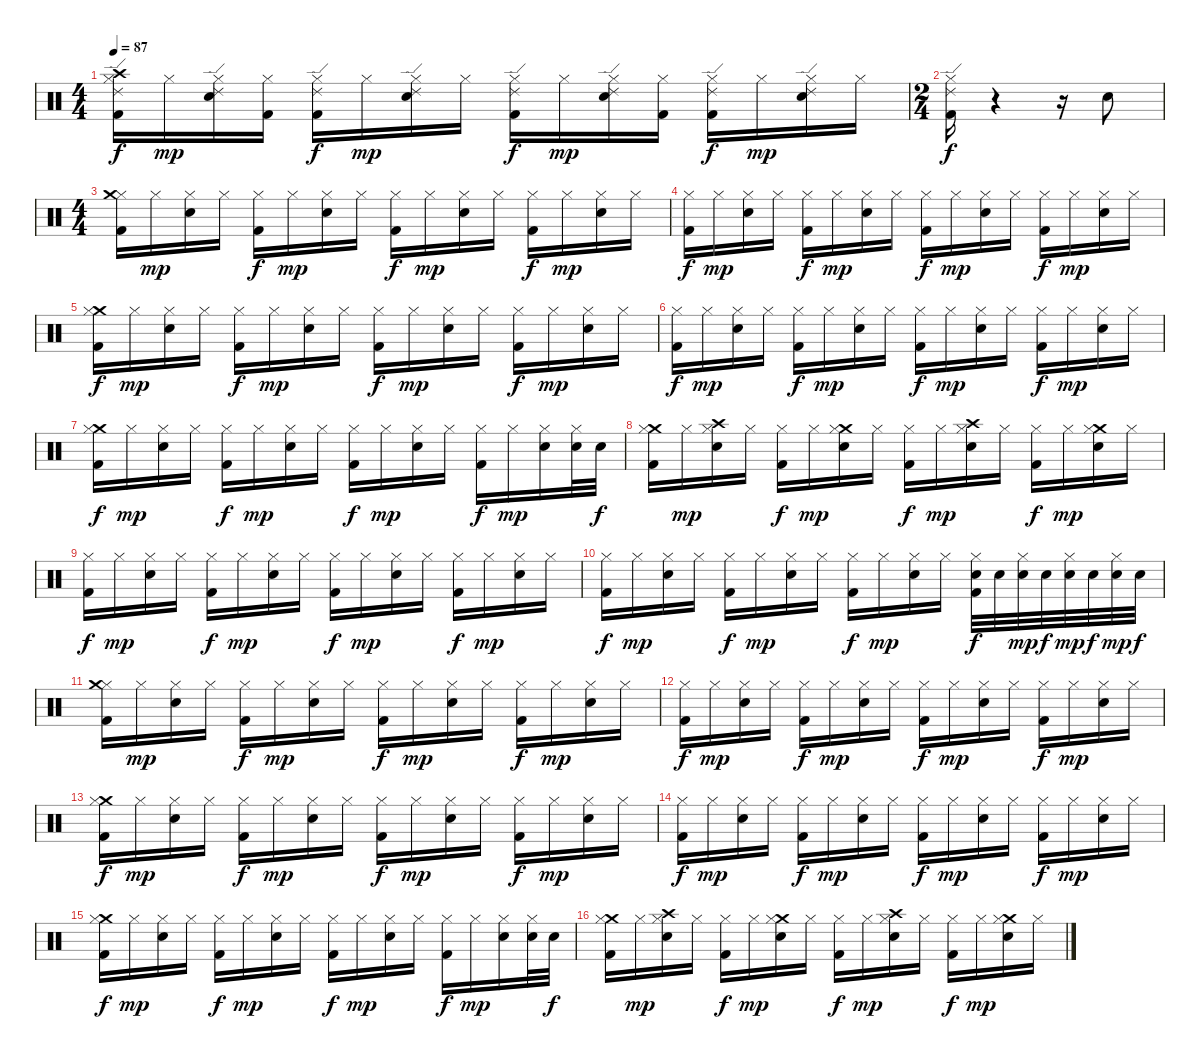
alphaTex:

\track "" {instrument percussion}
\staff {score}
\articulation defaults
\ts (4 4)
\tempo 87
\clef neutral
\ks c
("Hi-Hat (closed)" "Crash high (hit)" "Ride (edge) 2" "Kick (hit) 2").16{dy f} "Hi-Hat (closed)".16{dy mp} ("Hi-Hat (closed)" "Ride (edge) 2" "Electric Snare (hit)").16 ("Kick (hit) 2" "Hi-Hat (closed)").16 ("Hi-Hat (closed)" "Ride (edge) 2" "Kick (hit) 2").16{dy f} "Hi-Hat (closed)".16{dy mp} ("Hi-Hat (closed)" "Electric Snare (hit)" "Ride (edge) 2").16 "Hi-Hat (closed)".16 ("Hi-Hat (closed)" "Ride (edge) 2" "Kick (hit) 2").16{dy f} "Hi-Hat (closed)".16{dy mp} ("Hi-Hat (closed)" "Ride (edge) 2" "Electric Snare (hit)").16 ("Kick (hit) 2" "Hi-Hat (closed)").16 ("Hi-Hat (closed)" "Ride (edge) 2" "Kick (hit) 2").16{dy f} "Hi-Hat (closed)".16{dy mp} ("Hi-Hat (closed)" "Ride (edge) 2" "Electric Snare (hit)").16 "Hi-Hat (closed)".16 |
\ts (2 4)
("Ride (edge) 2" "Hi-Hat (closed)" "Kick (hit) 2").16{dy f} r.4 r.16 "Electric Snare (hit)".8 |
\ts (4 4)
("Hi-Hat (closed)" "Crash medium (hit)" "Kick (hit) 2").16 "Hi-Hat (closed)".16{dy mp} ("Hi-Hat (closed)" "Electric Snare (hit)").16 "Hi-Hat (closed)".16 ("Hi-Hat (closed)" "Kick (hit) 2").16{dy f} "Hi-Hat (closed)".16{dy mp} ("Hi-Hat (closed)" "Electric Snare (hit)").16 "Hi-Hat (closed)".16 ("Hi-Hat (closed)" "Kick (hit) 2").16{dy f} "Hi-Hat (closed)".16{dy mp} ("Hi-Hat (closed)" "Electric Snare (hit)").16 "Hi-Hat (closed)".16 ("Hi-Hat (closed)" "Kick (hit) 2").16{dy f} "Hi-Hat (closed)".16{dy mp} ("Hi-Hat (closed)" "Electric Snare (hit)").16 "Hi-Hat (closed)".16 |
("Hi-Hat (closed)" "Kick (hit) 2").16{dy f} "Hi-Hat (closed)".16{dy mp} ("Hi-Hat (closed)" "Electric Snare (hit)").16 "Hi-Hat (closed)".16 ("Hi-Hat (closed)" "Kick (hit) 2").16{dy f} "Hi-Hat (closed)".16{dy mp} ("Hi-Hat (closed)" "Electric Snare (hit)").16 "Hi-Hat (closed)".16 ("Hi-Hat (closed)" "Kick (hit) 2").16{dy f} "Hi-Hat (closed)".16{dy mp} ("Hi-Hat (closed)" "Electric Snare (hit)").16 "Hi-Hat (closed)".16 ("Hi-Hat (closed)" "Kick (hit) 2").16{dy f} "Hi-Hat (closed)".16{dy mp} ("Hi-Hat (closed)" "Electric Snare (hit)").16 "Hi-Hat (closed)".16 |
("Crash medium (hit)" "Hi-Hat (closed)" "Kick (hit) 2").16{dy f} "Hi-Hat (closed)".16{dy mp} ("Hi-Hat (closed)" "Electric Snare (hit)").16 "Hi-Hat (closed)".16 ("Hi-Hat (closed)" "Kick (hit) 2").16{dy f} "Hi-Hat (closed)".16{dy mp} ("Hi-Hat (closed)" "Electric Snare (hit)").16 "Hi-Hat (closed)".16 ("Hi-Hat (closed)" "Kick (hit) 2").16{dy f} "Hi-Hat (closed)".16{dy mp} ("Hi-Hat (closed)" "Electric Snare (hit)").16 "Hi-Hat (closed)".16 ("Hi-Hat (closed)" "Kick (hit) 2").16{dy f} "Hi-Hat (closed)".16{dy mp} ("Hi-Hat (closed)" "Electric Snare (hit)").16 "Hi-Hat (closed)".16 |
("Hi-Hat (closed)" "Kick (hit) 2").16{dy f} "Hi-Hat (closed)".16{dy mp} ("Hi-Hat (closed)" "Electric Snare (hit)").16 "Hi-Hat (closed)".16 ("Hi-Hat (closed)" "Kick (hit) 2").16{dy f} "Hi-Hat (closed)".16{dy mp} ("Hi-Hat (closed)" "Electric Snare (hit)").16 "Hi-Hat (closed)".16 ("Hi-Hat (closed)" "Kick (hit) 2").16{dy f} "Hi-Hat (closed)".16{dy mp} ("Hi-Hat (closed)" "Electric Snare (hit)").16 "Hi-Hat (closed)".16 ("Hi-Hat (closed)" "Kick (hit) 2").16{dy f} "Hi-Hat (closed)".16{dy mp} ("Hi-Hat (closed)" "Electric Snare (hit)").16 "Hi-Hat (closed)".16 |
("Crash medium (hit)" "Hi-Hat (closed)" "Kick (hit) 2").16{dy f} "Hi-Hat (closed)".16{dy mp} ("Hi-Hat (closed)" "Electric Snare (hit)").16 "Hi-Hat (closed)".16 ("Hi-Hat (closed)" "Kick (hit) 2").16{dy f} "Hi-Hat (closed)".16{dy mp} ("Hi-Hat (closed)" "Electric Snare (hit)").16 "Hi-Hat (closed)".16 ("Hi-Hat (closed)" "Kick (hit) 2").16{dy f} "Hi-Hat (closed)".16{dy mp} ("Hi-Hat (closed)" "Electric Snare (hit)").16 "Hi-Hat (closed)".16 ("Hi-Hat (closed)" "Kick (hit) 2").16{dy f} "Hi-Hat (closed)".16{dy mp} ("Electric Snare (hit)" "Hi-Hat (closed)").16 ("Electric Snare (hit)" "Hi-Hat (closed)").32 "Electric Snare (hit)".32{dy f} |
("Crash medium (hit)" "Hi-Hat (closed)" "Kick (hit) 2").16 "Hi-Hat (closed)".16{dy mp} ("Crash high (hit)" "Hi-Hat (closed)" "Electric Snare (hit)").16 "Hi-Hat (closed)".16 ("Hi-Hat (closed)" "Kick (hit) 2").16{dy f} "Hi-Hat (closed)".16{dy mp} ("Crash medium (hit)" "Hi-Hat (closed)" "Electric Snare (hit)").16 "Hi-Hat (closed)".16 ("Hi-Hat (closed)" "Kick (hit) 2").16{dy f} "Hi-Hat (closed)".16{dy mp} ("Crash high (hit)" "Hi-Hat (closed)" "Electric Snare (hit)").16 "Hi-Hat (closed)".16 ("Hi-Hat (closed)" "Kick (hit) 2").16{dy f} "Hi-Hat (closed)".16{dy mp} ("Crash medium (hit)" "Hi-Hat (closed)" "Electric Snare (hit)").16 "Hi-Hat (closed)".16 |
("Hi-Hat (closed)" "Kick (hit) 2").16{dy f} "Hi-Hat (closed)".16{dy mp} ("Hi-Hat (closed)" "Electric Snare (hit)").16 "Hi-Hat (closed)".16 ("Hi-Hat (closed)" "Kick (hit) 2").16{dy f} "Hi-Hat (closed)".16{dy mp} ("Hi-Hat (closed)" "Electric Snare (hit)").16 "Hi-Hat (closed)".16 ("Hi-Hat (closed)" "Kick (hit) 2").16{dy f} "Hi-Hat (closed)".16{dy mp} ("Hi-Hat (closed)" "Electric Snare (hit)").16 "Hi-Hat (closed)".16 ("Hi-Hat (closed)" "Kick (hit) 2").16{dy f} "Hi-Hat (closed)".16{dy mp} ("Hi-Hat (closed)" "Electric Snare (hit)").16 "Hi-Hat (closed)".16 |
("Hi-Hat (closed)" "Kick (hit) 2").16{dy f} "Hi-Hat (closed)".16{dy mp} ("Hi-Hat (closed)" "Electric Snare (hit)").16 "Hi-Hat (closed)".16 ("Hi-Hat (closed)" "Kick (hit) 2").16{dy f} "Hi-Hat (closed)".16{dy mp} ("Hi-Hat (closed)" "Electric Snare (hit)").16 "Hi-Hat (closed)".16 ("Hi-Hat (closed)" "Kick (hit) 2").16{dy f} "Hi-Hat (closed)".16{dy mp} ("Hi-Hat (closed)" "Electric Snare (hit)").16 "Hi-Hat (closed)".16 ("Electric Snare (hit)" "Hi-Hat (closed)" "Kick (hit) 2").32{dy f} "Electric Snare (hit)".32 ("Electric Snare (hit)" "Hi-Hat (closed)").32{dy mp} "Electric Snare (hit)".32{dy f} ("Hi-Hat (closed)" "Electric Snare (hit)").32{dy mp} "Electric Snare (hit)".32{dy f} ("Electric Snare (hit)" "Hi-Hat (closed)").32{dy mp} "Electric Snare (hit)".32{dy f} |
("Hi-Hat (closed)" "Crash medium (hit)" "Kick (hit) 2").16 "Hi-Hat (closed)".16{dy mp} ("Hi-Hat (closed)" "Electric Snare (hit)").16 "Hi-Hat (closed)".16 ("Hi-Hat (closed)" "Kick (hit) 2").16{dy f} "Hi-Hat (closed)".16{dy mp} ("Hi-Hat (closed)" "Electric Snare (hit)").16 "Hi-Hat (closed)".16 ("Hi-Hat (closed)" "Kick (hit) 2").16{dy f} "Hi-Hat (closed)".16{dy mp} ("Hi-Hat (closed)" "Electric Snare (hit)").16 "Hi-Hat (closed)".16 ("Hi-Hat (closed)" "Kick (hit) 2").16{dy f} "Hi-Hat (closed)".16{dy mp} ("Hi-Hat (closed)" "Electric Snare (hit)").16 "Hi-Hat (closed)".16 |
("Hi-Hat (closed)" "Kick (hit) 2").16{dy f} "Hi-Hat (closed)".16{dy mp} ("Hi-Hat (closed)" "Electric Snare (hit)").16 "Hi-Hat (closed)".16 ("Hi-Hat (closed)" "Kick (hit) 2").16{dy f} "Hi-Hat (closed)".16{dy mp} ("Hi-Hat (closed)" "Electric Snare (hit)").16 "Hi-Hat (closed)".16 ("Hi-Hat (closed)" "Kick (hit) 2").16{dy f} "Hi-Hat (closed)".16{dy mp} ("Hi-Hat (closed)" "Electric Snare (hit)").16 "Hi-Hat (closed)".16 ("Hi-Hat (closed)" "Kick (hit) 2").16{dy f} "Hi-Hat (closed)".16{dy mp} ("Hi-Hat (closed)" "Electric Snare (hit)").16 "Hi-Hat (closed)".16 |
("Crash medium (hit)" "Hi-Hat (closed)" "Kick (hit) 2").16{dy f} "Hi-Hat (closed)".16{dy mp} ("Hi-Hat (closed)" "Electric Snare (hit)").16 "Hi-Hat (closed)".16 ("Hi-Hat (closed)" "Kick (hit) 2").16{dy f} "Hi-Hat (closed)".16{dy mp} ("Hi-Hat (closed)" "Electric Snare (hit)").16 "Hi-Hat (closed)".16 ("Hi-Hat (closed)" "Kick (hit) 2").16{dy f} "Hi-Hat (closed)".16{dy mp} ("Hi-Hat (closed)" "Electric Snare (hit)").16 "Hi-Hat (closed)".16 ("Hi-Hat (closed)" "Kick (hit) 2").16{dy f} "Hi-Hat (closed)".16{dy mp} ("Hi-Hat (closed)" "Electric Snare (hit)").16 "Hi-Hat (closed)".16 |
("Hi-Hat (closed)" "Kick (hit) 2").16{dy f} "Hi-Hat (closed)".16{dy mp} ("Hi-Hat (closed)" "Electric Snare (hit)").16 "Hi-Hat (closed)".16 ("Hi-Hat (closed)" "Kick (hit) 2").16{dy f} "Hi-Hat (closed)".16{dy mp} ("Hi-Hat (closed)" "Electric Snare (hit)").16 "Hi-Hat (closed)".16 ("Hi-Hat (closed)" "Kick (hit) 2").16{dy f} "Hi-Hat (closed)".16{dy mp} ("Hi-Hat (closed)" "Electric Snare (hit)").16 "Hi-Hat (closed)".16 ("Hi-Hat (closed)" "Kick (hit) 2").16{dy f} "Hi-Hat (closed)".16{dy mp} ("Hi-Hat (closed)" "Electric Snare (hit)").16 "Hi-Hat (closed)".16 |
("Crash medium (hit)" "Hi-Hat (closed)" "Kick (hit) 2").16{dy f} "Hi-Hat (closed)".16{dy mp} ("Hi-Hat (closed)" "Electric Snare (hit)").16 "Hi-Hat (closed)".16 ("Hi-Hat (closed)" "Kick (hit) 2").16{dy f} "Hi-Hat (closed)".16{dy mp} ("Hi-Hat (closed)" "Electric Snare (hit)").16 "Hi-Hat (closed)".16 ("Hi-Hat (closed)" "Kick (hit) 2").16{dy f} "Hi-Hat (closed)".16{dy mp} ("Hi-Hat (closed)" "Electric Snare (hit)").16 "Hi-Hat (closed)".16 ("Hi-Hat (closed)" "Kick (hit) 2").16{dy f} "Hi-Hat (closed)".16{dy mp} ("Electric Snare (hit)" "Hi-Hat (closed)").16 ("Electric Snare (hit)" "Hi-Hat (closed)").32 "Electric Snare (hit)".32{dy f} |
("Crash medium (hit)" "Hi-Hat (closed)" "Kick (hit) 2").16 "Hi-Hat (closed)".16{dy mp} ("Crash high (hit)" "Hi-Hat (closed)" "Electric Snare (hit)").16 "Hi-Hat (closed)".16 ("Hi-Hat (closed)" "Kick (hit) 2").16{dy f} "Hi-Hat (closed)".16{dy mp} ("Crash medium (hit)" "Hi-Hat (closed)" "Electric Snare (hit)").16 "Hi-Hat (closed)".16 ("Hi-Hat (closed)" "Kick (hit) 2").16{dy f} "Hi-Hat (closed)".16{dy mp} ("Crash high (hit)" "Hi-Hat (closed)" "Electric Snare (hit)").16 "Hi-Hat (closed)".16 ("Hi-Hat (closed)" "Kick (hit) 2").16{dy f} "Hi-Hat (closed)".16{dy mp} ("Crash medium (hit)" "Hi-Hat (closed)" "Electric Snare (hit)").16 "Hi-Hat (closed)".16
